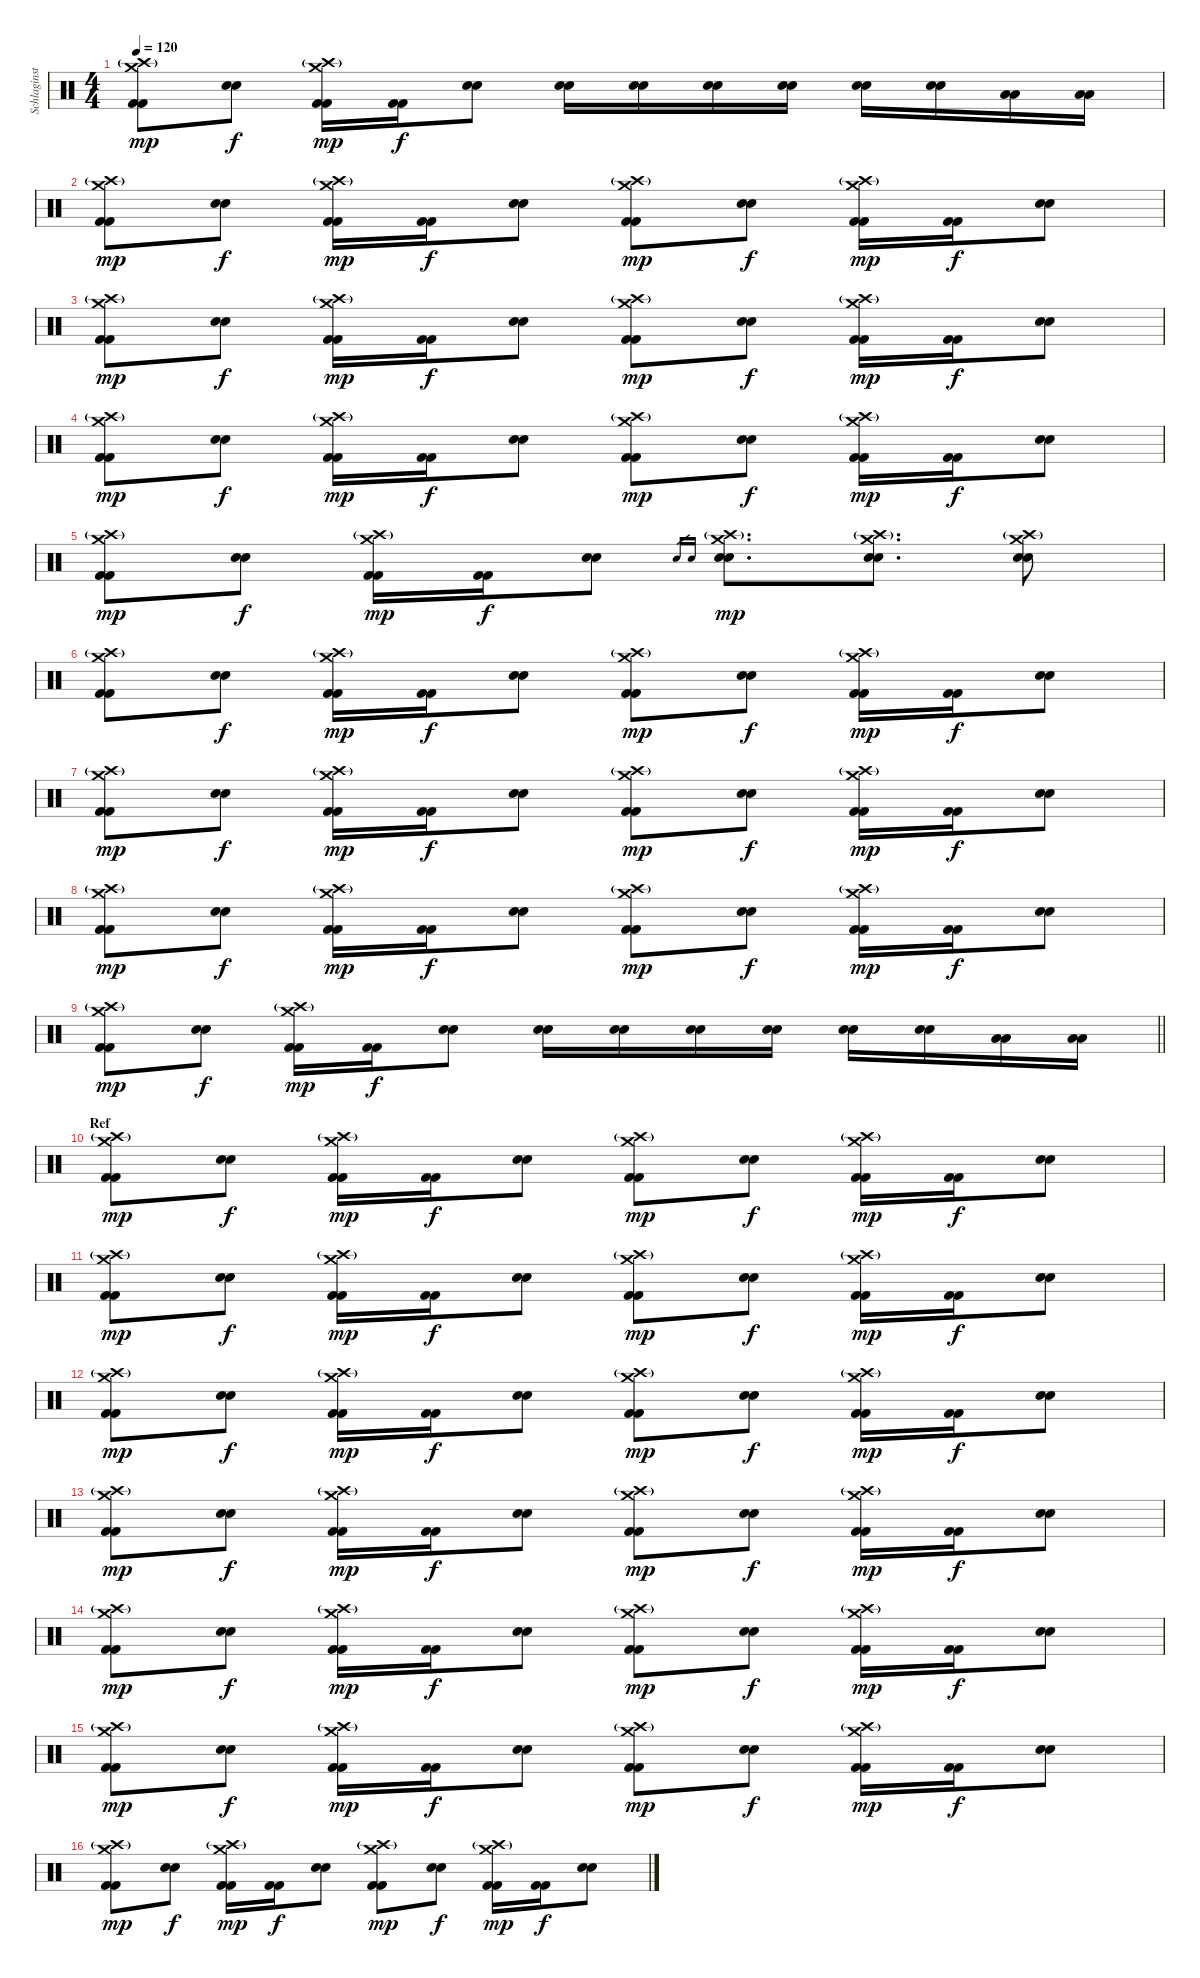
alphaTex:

\track ("Schlaginstrumente - Auswahl" "Schlaginst") {instrument percussion}
\staff {score}
\articulation defaults
\ts (4 4)
\tempo 120
\clef neutral
\ks c
("Crash high (hit)"{g} "Crash medium (hit)" "Kick (hit) 2" "Kick (hit) 2").8{dy mp} ("Electric Snare (hit)" "Electric Snare (hit)").8{dy f} ("Crash high (hit)"{g} "Crash medium (hit)" "Kick (hit) 2" "Kick (hit) 2").16{dy mp} ("Kick (hit) 2" "Kick (hit) 2").16{dy f} ("Electric Snare (hit)" "Electric Snare (hit)").8 ("Electric Snare (hit)" "Electric Snare (hit)").16 ("Electric Snare (hit)" "Electric Snare (hit)").16 ("Electric Snare (hit)" "Electric Snare (hit)").16 ("Electric Snare (hit)" "Electric Snare (hit)").16 ("Snare (hit) 2" "Snare (hit) 2").16 ("Snare (hit) 2" "Snare (hit) 2").16 ("Low Tom (hit)" "Low Tom (hit)").16 ("Low Tom (hit)" "Low Tom (hit)").16 |
("Crash high (hit)"{g} "Crash medium (hit)" "Kick (hit) 2" "Kick (hit) 2").8{dy mp} ("Electric Snare (hit)" "Electric Snare (hit)").8{dy f} ("Crash high (hit)"{g} "Crash medium (hit)" "Kick (hit) 2" "Kick (hit) 2").16{dy mp} ("Kick (hit) 2" "Kick (hit) 2").16{dy f} ("Electric Snare (hit)" "Electric Snare (hit)").8 ("Crash high (hit)"{g} "Crash medium (hit)" "Kick (hit) 2" "Kick (hit) 2").8{dy mp} ("Electric Snare (hit)" "Electric Snare (hit)").8{dy f} ("Crash high (hit)"{g} "Crash medium (hit)" "Kick (hit) 2" "Kick (hit) 2").16{dy mp} ("Kick (hit) 2" "Kick (hit) 2").16{dy f} ("Electric Snare (hit)" "Electric Snare (hit)").8 |
("Crash high (hit)"{g} "Crash medium (hit)" "Kick (hit) 2" "Kick (hit) 2").8{dy mp} ("Electric Snare (hit)" "Electric Snare (hit)").8{dy f} ("Crash high (hit)"{g} "Crash medium (hit)" "Kick (hit) 2" "Kick (hit) 2").16{dy mp} ("Kick (hit) 2" "Kick (hit) 2").16{dy f} ("Electric Snare (hit)" "Electric Snare (hit)").8 ("Crash high (hit)"{g} "Crash medium (hit)" "Kick (hit) 2" "Kick (hit) 2").8{dy mp} ("Electric Snare (hit)" "Electric Snare (hit)").8{dy f} ("Crash high (hit)"{g} "Crash medium (hit)" "Kick (hit) 2" "Kick (hit) 2").16{dy mp} ("Kick (hit) 2" "Kick (hit) 2").16{dy f} ("Electric Snare (hit)" "Electric Snare (hit)").8 |
("Crash high (hit)"{g} "Crash medium (hit)" "Kick (hit) 2" "Kick (hit) 2").8{dy mp} ("Electric Snare (hit)" "Electric Snare (hit)").8{dy f} ("Crash high (hit)"{g} "Crash medium (hit)" "Kick (hit) 2" "Kick (hit) 2").16{dy mp} ("Kick (hit) 2" "Kick (hit) 2").16{dy f} ("Electric Snare (hit)" "Electric Snare (hit)").8 ("Crash high (hit)"{g} "Crash medium (hit)" "Kick (hit) 2" "Kick (hit) 2").8{dy mp} ("Electric Snare (hit)" "Electric Snare (hit)").8{dy f} ("Crash high (hit)"{g} "Crash medium (hit)" "Kick (hit) 2" "Kick (hit) 2").16{dy mp} ("Kick (hit) 2" "Kick (hit) 2").16{dy f} ("Electric Snare (hit)" "Electric Snare (hit)").8 |
("Crash high (hit)"{g} "Crash medium (hit)" "Kick (hit) 2" "Kick (hit) 2").8{dy mp} ("Electric Snare (hit)" "Electric Snare (hit)").8{dy f} ("Crash high (hit)"{g} "Crash medium (hit)" "Kick (hit) 2" "Kick (hit) 2").16{dy mp} ("Kick (hit) 2" "Kick (hit) 2").16{dy f} ("Electric Snare (hit)" "Electric Snare (hit)").8 "Electric Snare (hit)".16{gr} "Electric Snare (hit)".16{gr} ("Crash high (hit)"{g} "Crash medium (hit)" "Electric Snare (hit)" "Electric Snare (hit)").8{d dy mp} ("Crash high (hit)"{g} "Crash medium (hit)" "Electric Snare (hit)" "Electric Snare (hit)").8{d} ("Crash high (hit)"{g} "Crash medium (hit)" "Electric Snare (hit)" "Electric Snare (hit)").8 |
("Crash high (hit)"{g} "Crash medium (hit)" "Kick (hit) 2" "Kick (hit) 2").8 ("Electric Snare (hit)" "Electric Snare (hit)").8{dy f} ("Crash high (hit)"{g} "Crash medium (hit)" "Kick (hit) 2" "Kick (hit) 2").16{dy mp} ("Kick (hit) 2" "Kick (hit) 2").16{dy f} ("Electric Snare (hit)" "Electric Snare (hit)").8 ("Crash high (hit)"{g} "Crash medium (hit)" "Kick (hit) 2" "Kick (hit) 2").8{dy mp} ("Electric Snare (hit)" "Electric Snare (hit)").8{dy f} ("Crash high (hit)"{g} "Crash medium (hit)" "Kick (hit) 2" "Kick (hit) 2").16{dy mp} ("Kick (hit) 2" "Kick (hit) 2").16{dy f} ("Electric Snare (hit)" "Electric Snare (hit)").8 |
("Crash high (hit)"{g} "Crash medium (hit)" "Kick (hit) 2" "Kick (hit) 2").8{dy mp} ("Electric Snare (hit)" "Electric Snare (hit)").8{dy f} ("Crash high (hit)"{g} "Crash medium (hit)" "Kick (hit) 2" "Kick (hit) 2").16{dy mp} ("Kick (hit) 2" "Kick (hit) 2").16{dy f} ("Electric Snare (hit)" "Electric Snare (hit)").8 ("Crash high (hit)"{g} "Crash medium (hit)" "Kick (hit) 2" "Kick (hit) 2").8{dy mp} ("Electric Snare (hit)" "Electric Snare (hit)").8{dy f} ("Crash high (hit)"{g} "Crash medium (hit)" "Kick (hit) 2" "Kick (hit) 2").16{dy mp} ("Kick (hit) 2" "Kick (hit) 2").16{dy f} ("Electric Snare (hit)" "Electric Snare (hit)").8 |
("Crash high (hit)"{g} "Crash medium (hit)" "Kick (hit) 2" "Kick (hit) 2").8{dy mp} ("Electric Snare (hit)" "Electric Snare (hit)").8{dy f} ("Crash high (hit)"{g} "Crash medium (hit)" "Kick (hit) 2" "Kick (hit) 2").16{dy mp} ("Kick (hit) 2" "Kick (hit) 2").16{dy f} ("Electric Snare (hit)" "Electric Snare (hit)").8 ("Crash high (hit)"{g} "Crash medium (hit)" "Kick (hit) 2" "Kick (hit) 2").8{dy mp} ("Electric Snare (hit)" "Electric Snare (hit)").8{dy f} ("Crash high (hit)"{g} "Crash medium (hit)" "Kick (hit) 2" "Kick (hit) 2").16{dy mp} ("Kick (hit) 2" "Kick (hit) 2").16{dy f} ("Electric Snare (hit)" "Electric Snare (hit)").8 |
\barLineRight lightlight
("Crash high (hit)"{g} "Crash medium (hit)" "Kick (hit) 2" "Kick (hit) 2").8{dy mp} ("Electric Snare (hit)" "Electric Snare (hit)").8{dy f} ("Crash high (hit)"{g} "Crash medium (hit)" "Kick (hit) 2" "Kick (hit) 2").16{dy mp} ("Kick (hit) 2" "Kick (hit) 2").16{dy f} ("Electric Snare (hit)" "Electric Snare (hit)").8 ("Electric Snare (hit)" "Electric Snare (hit)").16 ("Electric Snare (hit)" "Electric Snare (hit)").16 ("Electric Snare (hit)" "Electric Snare (hit)").16 ("Electric Snare (hit)" "Electric Snare (hit)").16 ("Snare (hit) 2" "Snare (hit) 2").16 ("Snare (hit) 2" "Snare (hit) 2").16 ("Low Tom (hit)" "Low Tom (hit)").16 ("Low Tom (hit)" "Low Tom (hit)").16 |
\section ("" "Ref")
("Crash high (hit)"{g} "Crash medium (hit)" "Kick (hit) 2" "Kick (hit) 2").8{dy mp} ("Electric Snare (hit)" "Electric Snare (hit)").8{dy f} ("Crash high (hit)"{g} "Crash medium (hit)" "Kick (hit) 2" "Kick (hit) 2").16{dy mp} ("Kick (hit) 2" "Kick (hit) 2").16{dy f} ("Electric Snare (hit)" "Electric Snare (hit)").8 ("Crash high (hit)"{g} "Crash medium (hit)" "Kick (hit) 2" "Kick (hit) 2").8{dy mp} ("Electric Snare (hit)" "Electric Snare (hit)").8{dy f} ("Crash high (hit)"{g} "Crash medium (hit)" "Kick (hit) 2" "Kick (hit) 2").16{dy mp} ("Kick (hit) 2" "Kick (hit) 2").16{dy f} ("Electric Snare (hit)" "Electric Snare (hit)").8 |
("Crash high (hit)"{g} "Crash medium (hit)" "Kick (hit) 2" "Kick (hit) 2").8{dy mp} ("Electric Snare (hit)" "Electric Snare (hit)").8{dy f} ("Crash high (hit)"{g} "Crash medium (hit)" "Kick (hit) 2" "Kick (hit) 2").16{dy mp} ("Kick (hit) 2" "Kick (hit) 2").16{dy f} ("Electric Snare (hit)" "Electric Snare (hit)").8 ("Crash high (hit)"{g} "Crash medium (hit)" "Kick (hit) 2" "Kick (hit) 2").8{dy mp} ("Electric Snare (hit)" "Electric Snare (hit)").8{dy f} ("Crash high (hit)"{g} "Crash medium (hit)" "Kick (hit) 2" "Kick (hit) 2").16{dy mp} ("Kick (hit) 2" "Kick (hit) 2").16{dy f} ("Electric Snare (hit)" "Electric Snare (hit)").8 |
("Crash high (hit)"{g} "Crash medium (hit)" "Kick (hit) 2" "Kick (hit) 2").8{dy mp} ("Electric Snare (hit)" "Electric Snare (hit)").8{dy f} ("Crash high (hit)"{g} "Crash medium (hit)" "Kick (hit) 2" "Kick (hit) 2").16{dy mp} ("Kick (hit) 2" "Kick (hit) 2").16{dy f} ("Electric Snare (hit)" "Electric Snare (hit)").8 ("Crash high (hit)"{g} "Crash medium (hit)" "Kick (hit) 2" "Kick (hit) 2").8{dy mp} ("Electric Snare (hit)" "Electric Snare (hit)").8{dy f} ("Crash high (hit)"{g} "Crash medium (hit)" "Kick (hit) 2" "Kick (hit) 2").16{dy mp} ("Kick (hit) 2" "Kick (hit) 2").16{dy f} ("Electric Snare (hit)" "Electric Snare (hit)").8 |
("Crash high (hit)"{g} "Crash medium (hit)" "Kick (hit) 2" "Kick (hit) 2").8{dy mp} ("Electric Snare (hit)" "Electric Snare (hit)").8{dy f} ("Crash high (hit)"{g} "Crash medium (hit)" "Kick (hit) 2" "Kick (hit) 2").16{dy mp} ("Kick (hit) 2" "Kick (hit) 2").16{dy f} ("Electric Snare (hit)" "Electric Snare (hit)").8 ("Crash high (hit)"{g} "Crash medium (hit)" "Kick (hit) 2" "Kick (hit) 2").8{dy mp} ("Electric Snare (hit)" "Electric Snare (hit)").8{dy f} ("Crash high (hit)"{g} "Crash medium (hit)" "Kick (hit) 2" "Kick (hit) 2").16{dy mp} ("Kick (hit) 2" "Kick (hit) 2").16{dy f} ("Electric Snare (hit)" "Electric Snare (hit)").8 |
("Crash high (hit)"{g} "Crash medium (hit)" "Kick (hit) 2" "Kick (hit) 2").8{dy mp} ("Electric Snare (hit)" "Electric Snare (hit)").8{dy f} ("Crash high (hit)"{g} "Crash medium (hit)" "Kick (hit) 2" "Kick (hit) 2").16{dy mp} ("Kick (hit) 2" "Kick (hit) 2").16{dy f} ("Electric Snare (hit)" "Electric Snare (hit)").8 ("Crash high (hit)"{g} "Crash medium (hit)" "Kick (hit) 2" "Kick (hit) 2").8{dy mp} ("Electric Snare (hit)" "Electric Snare (hit)").8{dy f} ("Crash high (hit)"{g} "Crash medium (hit)" "Kick (hit) 2" "Kick (hit) 2").16{dy mp} ("Kick (hit) 2" "Kick (hit) 2").16{dy f} ("Electric Snare (hit)" "Electric Snare (hit)").8 |
("Crash high (hit)"{g} "Crash medium (hit)" "Kick (hit) 2" "Kick (hit) 2").8{dy mp} ("Electric Snare (hit)" "Electric Snare (hit)").8{dy f} ("Crash high (hit)"{g} "Crash medium (hit)" "Kick (hit) 2" "Kick (hit) 2").16{dy mp} ("Kick (hit) 2" "Kick (hit) 2").16{dy f} ("Electric Snare (hit)" "Electric Snare (hit)").8 ("Crash high (hit)"{g} "Crash medium (hit)" "Kick (hit) 2" "Kick (hit) 2").8{dy mp} ("Electric Snare (hit)" "Electric Snare (hit)").8{dy f} ("Crash high (hit)"{g} "Crash medium (hit)" "Kick (hit) 2" "Kick (hit) 2").16{dy mp} ("Kick (hit) 2" "Kick (hit) 2").16{dy f} ("Electric Snare (hit)" "Electric Snare (hit)").8 |
("Crash high (hit)"{g} "Crash medium (hit)" "Kick (hit) 2" "Kick (hit) 2").8{dy mp} ("Electric Snare (hit)" "Electric Snare (hit)").8{dy f} ("Crash high (hit)"{g} "Crash medium (hit)" "Kick (hit) 2" "Kick (hit) 2").16{dy mp} ("Kick (hit) 2" "Kick (hit) 2").16{dy f} ("Electric Snare (hit)" "Electric Snare (hit)").8 ("Crash high (hit)"{g} "Crash medium (hit)" "Kick (hit) 2" "Kick (hit) 2").8{dy mp} ("Electric Snare (hit)" "Electric Snare (hit)").8{dy f} ("Crash high (hit)"{g} "Crash medium (hit)" "Kick (hit) 2" "Kick (hit) 2").16{dy mp} ("Kick (hit) 2" "Kick (hit) 2").16{dy f} ("Electric Snare (hit)" "Electric Snare (hit)").8
